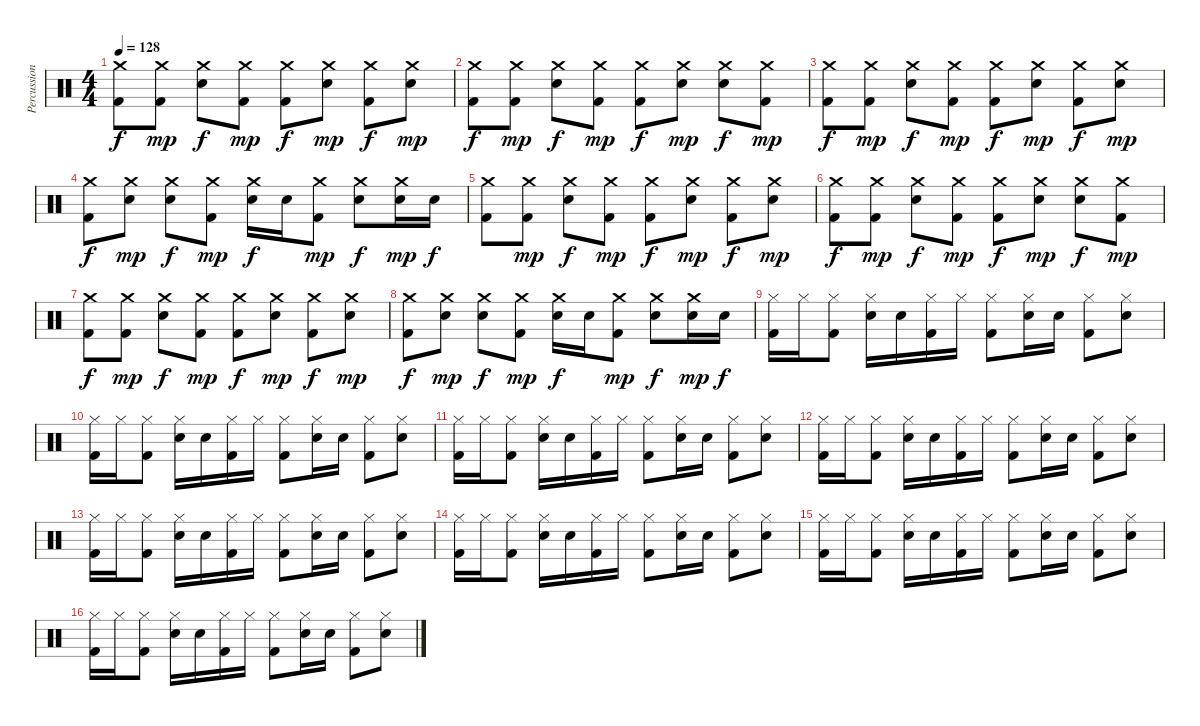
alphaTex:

\track ("Percussion" "Percussion") {instrument percussion}
\staff {score}
\articulation defaults
\ts (4 4)
\tempo 128
\clef neutral
\ks c
("Crash medium (hit)" "Kick (hit) 2").8{dy f} ("Crash medium (hit)" "Kick (hit) 2").8{dy mp} ("Crash medium (hit)" "Snare (hit) 2").8{dy f} ("Crash medium (hit)" "Kick (hit) 2").8{dy mp} ("Crash medium (hit)" "Kick (hit) 2").8{dy f} ("Crash medium (hit)" "Snare (hit) 2").8{dy mp} ("Crash medium (hit)" "Kick (hit) 2").8{dy f} ("Crash medium (hit)" "Snare (hit) 2").8{dy mp} |
("Crash medium (hit)" "Kick (hit) 2").8{dy f} ("Crash medium (hit)" "Kick (hit) 2").8{dy mp} ("Crash medium (hit)" "Snare (hit) 2").8{dy f} ("Crash medium (hit)" "Kick (hit) 2").8{dy mp} ("Crash medium (hit)" "Kick (hit) 2").8{dy f} ("Crash medium (hit)" "Snare (hit) 2").8{dy mp} ("Crash medium (hit)" "Snare (hit) 2").8{dy f} ("Crash medium (hit)" "Kick (hit) 2").8{dy mp} |
("Crash medium (hit)" "Kick (hit) 2").8{dy f} ("Crash medium (hit)" "Kick (hit) 2").8{dy mp} ("Crash medium (hit)" "Snare (hit) 2").8{dy f} ("Crash medium (hit)" "Kick (hit) 2").8{dy mp} ("Crash medium (hit)" "Kick (hit) 2").8{dy f} ("Crash medium (hit)" "Snare (hit) 2").8{dy mp} ("Crash medium (hit)" "Kick (hit) 2").8{dy f} ("Crash medium (hit)" "Snare (hit) 2").8{dy mp} |
("Crash medium (hit)" "Kick (hit) 2").8{dy f} ("Crash medium (hit)" "Snare (hit) 2").8{dy mp} ("Crash medium (hit)" "Snare (hit) 2").8{dy f} ("Crash medium (hit)" "Kick (hit) 2").8{dy mp} ("Crash medium (hit)" "Snare (hit) 2").16{dy f} "Snare (hit) 2".16 ("Crash medium (hit)" "Kick (hit) 2").8{dy mp} ("Crash medium (hit)" "Snare (hit) 2").8{dy f} ("Crash medium (hit)" "Snare (hit) 2").16{dy mp} "Snare (hit) 2".16{dy f} |
("Crash medium (hit)" "Kick (hit) 2").8 ("Crash medium (hit)" "Kick (hit) 2").8{dy mp} ("Crash medium (hit)" "Snare (hit) 2").8{dy f} ("Crash medium (hit)" "Kick (hit) 2").8{dy mp} ("Crash medium (hit)" "Kick (hit) 2").8{dy f} ("Crash medium (hit)" "Snare (hit) 2").8{dy mp} ("Crash medium (hit)" "Kick (hit) 2").8{dy f} ("Crash medium (hit)" "Snare (hit) 2").8{dy mp} |
("Crash medium (hit)" "Kick (hit) 2").8{dy f} ("Crash medium (hit)" "Kick (hit) 2").8{dy mp} ("Crash medium (hit)" "Snare (hit) 2").8{dy f} ("Crash medium (hit)" "Kick (hit) 2").8{dy mp} ("Crash medium (hit)" "Kick (hit) 2").8{dy f} ("Crash medium (hit)" "Snare (hit) 2").8{dy mp} ("Crash medium (hit)" "Snare (hit) 2").8{dy f} ("Crash medium (hit)" "Kick (hit) 2").8{dy mp} |
("Crash medium (hit)" "Kick (hit) 2").8{dy f} ("Crash medium (hit)" "Kick (hit) 2").8{dy mp} ("Crash medium (hit)" "Snare (hit) 2").8{dy f} ("Crash medium (hit)" "Kick (hit) 2").8{dy mp} ("Crash medium (hit)" "Kick (hit) 2").8{dy f} ("Crash medium (hit)" "Snare (hit) 2").8{dy mp} ("Crash medium (hit)" "Kick (hit) 2").8{dy f} ("Crash medium (hit)" "Snare (hit) 2").8{dy mp} |
("Crash medium (hit)" "Kick (hit) 2").8{dy f} ("Crash medium (hit)" "Snare (hit) 2").8{dy mp} ("Crash medium (hit)" "Snare (hit) 2").8{dy f} ("Crash medium (hit)" "Kick (hit) 2").8{dy mp} ("Crash medium (hit)" "Snare (hit) 2").16{dy f} "Snare (hit) 2".16 ("Crash medium (hit)" "Kick (hit) 2").8{dy mp} ("Crash medium (hit)" "Snare (hit) 2").8{dy f} ("Crash medium (hit)" "Snare (hit) 2").16{dy mp} "Snare (hit) 2".16{dy f} |
("Hi-Hat (closed)" "Kick (hit) 2").16 "Hi-Hat (closed)".16 ("Hi-Hat (closed)" "Kick (hit) 2").8 ("Hi-Hat (closed)" "Snare (hit) 2").16 "Snare (hit) 2".16 ("Hi-Hat (closed)" "Kick (hit) 2").16 "Hi-Hat (closed)".16 ("Hi-Hat (closed)" "Kick (hit) 2").8 ("Hi-Hat (closed)" "Snare (hit) 2").16 "Snare (hit) 2".16 ("Hi-Hat (closed)" "Kick (hit) 2").8 ("Hi-Hat (closed)" "Snare (hit) 2").8 |
("Hi-Hat (closed)" "Kick (hit) 2").16 "Hi-Hat (closed)".16 ("Hi-Hat (closed)" "Kick (hit) 2").8 ("Hi-Hat (closed)" "Snare (hit) 2").16 "Snare (hit) 2".16 ("Hi-Hat (closed)" "Kick (hit) 2").16 "Hi-Hat (closed)".16 ("Hi-Hat (closed)" "Kick (hit) 2").8 ("Hi-Hat (closed)" "Snare (hit) 2").16 "Snare (hit) 2".16 ("Hi-Hat (closed)" "Kick (hit) 2").8 ("Hi-Hat (closed)" "Snare (hit) 2").8 |
("Hi-Hat (closed)" "Kick (hit) 2").16 "Hi-Hat (closed)".16 ("Hi-Hat (closed)" "Kick (hit) 2").8 ("Hi-Hat (closed)" "Snare (hit) 2").16 "Snare (hit) 2".16 ("Hi-Hat (closed)" "Kick (hit) 2").16 "Hi-Hat (closed)".16 ("Hi-Hat (closed)" "Kick (hit) 2").8 ("Hi-Hat (closed)" "Snare (hit) 2").16 "Snare (hit) 2".16 ("Hi-Hat (closed)" "Kick (hit) 2").8 ("Hi-Hat (closed)" "Snare (hit) 2").8 |
("Hi-Hat (closed)" "Kick (hit) 2").16 "Hi-Hat (closed)".16 ("Hi-Hat (closed)" "Kick (hit) 2").8 ("Hi-Hat (closed)" "Snare (hit) 2").16 "Snare (hit) 2".16 ("Hi-Hat (closed)" "Kick (hit) 2").16 "Hi-Hat (closed)".16 ("Hi-Hat (closed)" "Kick (hit) 2").8 ("Hi-Hat (closed)" "Snare (hit) 2").16 "Snare (hit) 2".16 ("Hi-Hat (closed)" "Kick (hit) 2").8 ("Hi-Hat (closed)" "Snare (hit) 2").8 |
("Hi-Hat (closed)" "Kick (hit) 2").16 "Hi-Hat (closed)".16 ("Hi-Hat (closed)" "Kick (hit) 2").8 ("Hi-Hat (closed)" "Snare (hit) 2").16 "Snare (hit) 2".16 ("Hi-Hat (closed)" "Kick (hit) 2").16 "Hi-Hat (closed)".16 ("Hi-Hat (closed)" "Kick (hit) 2").8 ("Hi-Hat (closed)" "Snare (hit) 2").16 "Snare (hit) 2".16 ("Hi-Hat (closed)" "Kick (hit) 2").8 ("Hi-Hat (closed)" "Snare (hit) 2").8 |
("Hi-Hat (closed)" "Kick (hit) 2").16 "Hi-Hat (closed)".16 ("Hi-Hat (closed)" "Kick (hit) 2").8 ("Hi-Hat (closed)" "Snare (hit) 2").16 "Snare (hit) 2".16 ("Hi-Hat (closed)" "Kick (hit) 2").16 "Hi-Hat (closed)".16 ("Hi-Hat (closed)" "Kick (hit) 2").8 ("Hi-Hat (closed)" "Snare (hit) 2").16 "Snare (hit) 2".16 ("Hi-Hat (closed)" "Kick (hit) 2").8 ("Hi-Hat (closed)" "Snare (hit) 2").8 |
("Hi-Hat (closed)" "Kick (hit) 2").16 "Hi-Hat (closed)".16 ("Hi-Hat (closed)" "Kick (hit) 2").8 ("Hi-Hat (closed)" "Snare (hit) 2").16 "Snare (hit) 2".16 ("Hi-Hat (closed)" "Kick (hit) 2").16 "Hi-Hat (closed)".16 ("Hi-Hat (closed)" "Kick (hit) 2").8 ("Hi-Hat (closed)" "Snare (hit) 2").16 "Snare (hit) 2".16 ("Hi-Hat (closed)" "Kick (hit) 2").8 ("Hi-Hat (closed)" "Snare (hit) 2").8 |
("Hi-Hat (closed)" "Kick (hit) 2").16 "Hi-Hat (closed)".16 ("Hi-Hat (closed)" "Kick (hit) 2").8 ("Hi-Hat (closed)" "Snare (hit) 2").16 "Snare (hit) 2".16 ("Hi-Hat (closed)" "Kick (hit) 2").16 "Hi-Hat (closed)".16 ("Hi-Hat (closed)" "Kick (hit) 2").8 ("Hi-Hat (closed)" "Snare (hit) 2").16 "Snare (hit) 2".16 ("Hi-Hat (closed)" "Kick (hit) 2").8 ("Hi-Hat (closed)" "Snare (hit) 2").8
